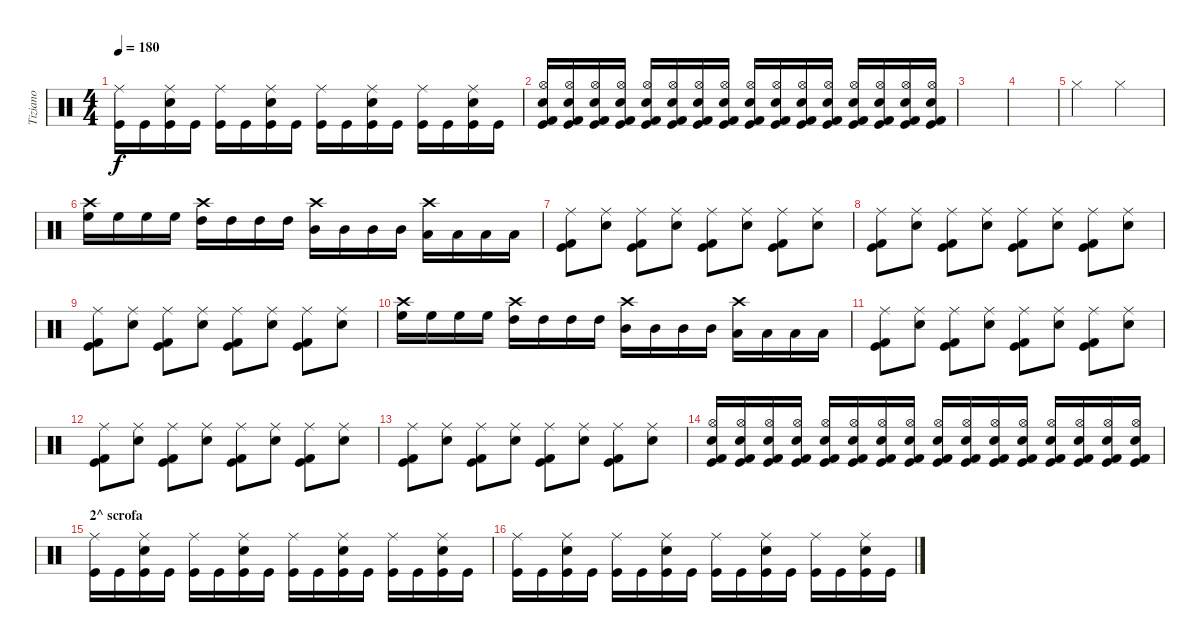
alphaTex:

\track ("Tiziano" "Tiziano") {instrument percussion}
\staff {score}
\articulation defaults
\ts (4 4)
\tempo 180
\clef neutral
\ks c
("Kick (hit)" "Ride (middle)").16{dy f} "Kick (hit)".16 ("Kick (hit)" "Snare (hit) 2" "Ride (middle)").16 "Kick (hit)".16 ("Kick (hit)" "Ride (middle)").16 "Kick (hit)".16 ("Kick (hit)" "Snare (hit) 2" "Ride (middle)").16 "Kick (hit)".16 ("Kick (hit)" "Ride (middle)").16 "Kick (hit)".16 ("Kick (hit)" "Snare (hit) 2" "Ride (middle)").16 "Kick (hit)".16 ("Kick (hit)" "Ride (middle)").16 "Kick (hit)".16 ("Kick (hit)" "Snare (hit) 2" "Ride (middle)").16 "Kick (hit)".16 |
("Hi-Hat (open)" "Kick (hit)" "Kick (hit) 2" "Snare (hit) 2").16 ("Hi-Hat (open)" "Kick (hit)" "Kick (hit) 2" "Snare (hit) 2").16 ("Hi-Hat (open)" "Kick (hit)" "Kick (hit) 2" "Snare (hit) 2").16 ("Hi-Hat (open)" "Kick (hit)" "Kick (hit) 2" "Snare (hit) 2").16 ("Hi-Hat (open)" "Kick (hit)" "Kick (hit) 2" "Snare (hit) 2").16 ("Hi-Hat (open)" "Kick (hit)" "Kick (hit) 2" "Snare (hit) 2").16 ("Hi-Hat (open)" "Kick (hit)" "Kick (hit) 2" "Snare (hit) 2").16 ("Hi-Hat (open)" "Kick (hit)" "Kick (hit) 2" "Snare (hit) 2").16 ("Hi-Hat (open)" "Kick (hit)" "Kick (hit) 2" "Snare (hit) 2").16 ("Hi-Hat (open)" "Kick (hit)" "Kick (hit) 2" "Snare (hit) 2").16 ("Hi-Hat (open)" "Kick (hit)" "Kick (hit) 2" "Snare (hit) 2").16 ("Hi-Hat (open)" "Kick (hit)" "Kick (hit) 2" "Snare (hit) 2").16 ("Hi-Hat (open)" "Kick (hit)" "Kick (hit) 2" "Snare (hit) 2").16 ("Hi-Hat (open)" "Kick (hit)" "Kick (hit) 2" "Snare (hit) 2").16 ("Hi-Hat (open)" "Kick (hit)" "Kick (hit) 2" "Snare (hit) 2").16 ("Hi-Hat (open)" "Kick (hit)" "Kick (hit) 2" "Snare (hit) 2").16 |
|
|
"Hi-Hat (closed)".2 "Hi-Hat (closed)".2 |
("High Floor Tom (hit)" "Crash high (hit)").16 "High Floor Tom (hit)".16 "High Floor Tom (hit)".16 "High Floor Tom (hit)".16 ("High Tom (hit)" "Crash high (hit)").16 "High Tom (hit)".16 "High Tom (hit)".16 "High Tom (hit)".16 ("Mid Tom (hit)" "Crash high (hit)").16 "Mid Tom (hit)".16 "Mid Tom (hit)".16 "Mid Tom (hit)".16 ("Low Tom (hit)" "Crash high (hit)").16 "Low Tom (hit)".16 "Low Tom (hit)".16 "Low Tom (hit)".16 |
("Kick (hit)" "Kick (hit) 2" "Ride (middle)").8 ("Snare (hit) 2" "Ride (middle)").8 ("Kick (hit)" "Kick (hit) 2" "Ride (middle)").8 ("Snare (hit) 2" "Ride (middle)").8 ("Kick (hit)" "Kick (hit) 2" "Ride (middle)").8 ("Snare (hit) 2" "Ride (middle)").8 ("Kick (hit)" "Kick (hit) 2" "Ride (middle)").8 ("Snare (hit) 2" "Ride (middle)").8 |
("Kick (hit)" "Kick (hit) 2" "Ride (middle)").8 ("Snare (hit) 2" "Ride (middle)").8 ("Kick (hit)" "Kick (hit) 2" "Ride (middle)").8 ("Snare (hit) 2" "Ride (middle)").8 ("Kick (hit)" "Kick (hit) 2" "Ride (middle)").8 ("Snare (hit) 2" "Ride (middle)").8 ("Kick (hit)" "Kick (hit) 2" "Ride (middle)").8 ("Snare (hit) 2" "Ride (middle)").8 |
("Kick (hit)" "Kick (hit) 2" "Ride (middle)").8 ("Snare (hit) 2" "Ride (middle)").8 ("Kick (hit)" "Kick (hit) 2" "Ride (middle)").8 ("Snare (hit) 2" "Ride (middle)").8 ("Kick (hit)" "Kick (hit) 2" "Ride (middle)").8 ("Snare (hit) 2" "Ride (middle)").8 ("Kick (hit)" "Kick (hit) 2" "Ride (middle)").8 ("Snare (hit) 2" "Ride (middle)").8 |
("High Floor Tom (hit)" "Crash high (hit)").16 "High Floor Tom (hit)".16 "High Floor Tom (hit)".16 "High Floor Tom (hit)".16 ("High Tom (hit)" "Crash high (hit)").16 "High Tom (hit)".16 "High Tom (hit)".16 "High Tom (hit)".16 ("Mid Tom (hit)" "Crash high (hit)").16 "Mid Tom (hit)".16 "Mid Tom (hit)".16 "Mid Tom (hit)".16 ("Low Tom (hit)" "Crash high (hit)").16 "Low Tom (hit)".16 "Low Tom (hit)".16 "Low Tom (hit)".16 |
("Kick (hit)" "Kick (hit) 2" "Ride (middle)").8 ("Snare (hit) 2" "Ride (middle)").8 ("Kick (hit)" "Kick (hit) 2" "Ride (middle)").8 ("Snare (hit) 2" "Ride (middle)").8 ("Kick (hit)" "Kick (hit) 2" "Ride (middle)").8 ("Snare (hit) 2" "Ride (middle)").8 ("Kick (hit)" "Kick (hit) 2" "Ride (middle)").8 ("Snare (hit) 2" "Ride (middle)").8 |
("Kick (hit)" "Kick (hit) 2" "Ride (middle)").8 ("Snare (hit) 2" "Ride (middle)").8 ("Kick (hit)" "Kick (hit) 2" "Ride (middle)").8 ("Snare (hit) 2" "Ride (middle)").8 ("Kick (hit)" "Kick (hit) 2" "Ride (middle)").8 ("Snare (hit) 2" "Ride (middle)").8 ("Kick (hit)" "Kick (hit) 2" "Ride (middle)").8 ("Snare (hit) 2" "Ride (middle)").8 |
("Kick (hit)" "Kick (hit) 2" "Ride (middle)").8 ("Snare (hit) 2" "Ride (middle)").8 ("Kick (hit)" "Kick (hit) 2" "Ride (middle)").8 ("Snare (hit) 2" "Ride (middle)").8 ("Kick (hit)" "Kick (hit) 2" "Ride (middle)").8 ("Snare (hit) 2" "Ride (middle)").8 ("Kick (hit)" "Kick (hit) 2" "Ride (middle)").8 ("Snare (hit) 2" "Ride (middle)").8 |
("Hi-Hat (open)" "Kick (hit)" "Kick (hit) 2" "Snare (hit) 2").16 ("Hi-Hat (open)" "Kick (hit)" "Kick (hit) 2" "Snare (hit) 2").16 ("Hi-Hat (open)" "Kick (hit)" "Kick (hit) 2" "Snare (hit) 2").16 ("Hi-Hat (open)" "Kick (hit)" "Kick (hit) 2" "Snare (hit) 2").16 ("Hi-Hat (open)" "Kick (hit)" "Kick (hit) 2" "Snare (hit) 2").16 ("Hi-Hat (open)" "Kick (hit)" "Kick (hit) 2" "Snare (hit) 2").16 ("Hi-Hat (open)" "Kick (hit)" "Kick (hit) 2" "Snare (hit) 2").16 ("Hi-Hat (open)" "Kick (hit)" "Kick (hit) 2" "Snare (hit) 2").16 ("Hi-Hat (open)" "Kick (hit)" "Kick (hit) 2" "Snare (hit) 2").16 ("Hi-Hat (open)" "Kick (hit)" "Kick (hit) 2" "Snare (hit) 2").16 ("Hi-Hat (open)" "Kick (hit)" "Kick (hit) 2" "Snare (hit) 2").16 ("Hi-Hat (open)" "Kick (hit)" "Kick (hit) 2" "Snare (hit) 2").16 ("Hi-Hat (open)" "Kick (hit)" "Kick (hit) 2" "Snare (hit) 2").16 ("Hi-Hat (open)" "Kick (hit)" "Kick (hit) 2" "Snare (hit) 2").16 ("Hi-Hat (open)" "Kick (hit)" "Kick (hit) 2" "Snare (hit) 2").16 ("Hi-Hat (open)" "Kick (hit)" "Kick (hit) 2" "Snare (hit) 2").16 |
\section ("" "2^ scrofa")
("Kick (hit)" "Ride (middle)").16 "Kick (hit)".16 ("Kick (hit)" "Snare (hit) 2" "Ride (middle)").16 "Kick (hit)".16 ("Kick (hit)" "Ride (middle)").16 "Kick (hit)".16 ("Kick (hit)" "Snare (hit) 2" "Ride (middle)").16 "Kick (hit)".16 ("Kick (hit)" "Ride (middle)").16 "Kick (hit)".16 ("Kick (hit)" "Snare (hit) 2" "Ride (middle)").16 "Kick (hit)".16 ("Kick (hit)" "Ride (middle)").16 "Kick (hit)".16 ("Kick (hit)" "Snare (hit) 2" "Ride (middle)").16 "Kick (hit)".16 |
("Kick (hit)" "Ride (middle)").16 "Kick (hit)".16 ("Kick (hit)" "Snare (hit) 2" "Ride (middle)").16 "Kick (hit)".16 ("Kick (hit)" "Ride (middle)").16 "Kick (hit)".16 ("Kick (hit)" "Snare (hit) 2" "Ride (middle)").16 "Kick (hit)".16 ("Kick (hit)" "Ride (middle)").16 "Kick (hit)".16 ("Kick (hit)" "Snare (hit) 2" "Ride (middle)").16 "Kick (hit)".16 ("Kick (hit)" "Ride (middle)").16 "Kick (hit)".16 ("Kick (hit)" "Snare (hit) 2" "Ride (middle)").16 "Kick (hit)".16
